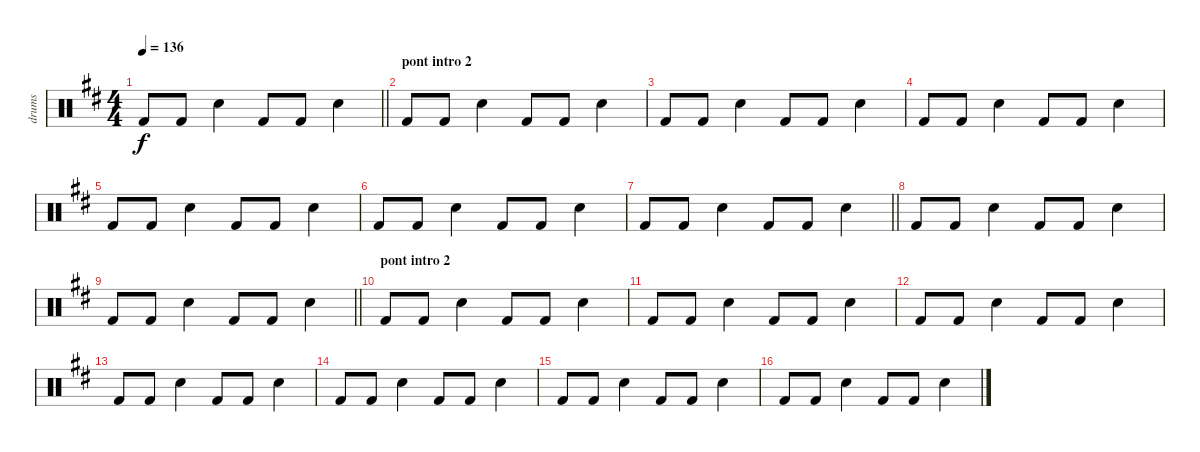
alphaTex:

\track ("drums" "drums") {instrument percussion}
\staff {score}
\articulation defaults
\ts (4 4)
\tempo 136
\clef neutral
\barLineRight lightlight
\ks d "Kick (hit) 2".8{dy f} "Kick (hit) 2".8 "Electric Snare (hit)".4 "Kick (hit) 2".8 "Kick (hit) 2".8 "Electric Snare (hit)".4
|
\section ("" "pont intro 2")
"Kick (hit) 2".8 "Kick (hit) 2".8 "Electric Snare (hit)".4 "Kick (hit) 2".8 "Kick (hit) 2".8 "Electric Snare (hit)".4 |
"Kick (hit) 2".8 "Kick (hit) 2".8 "Electric Snare (hit)".4 "Kick (hit) 2".8 "Kick (hit) 2".8 "Electric Snare (hit)".4 |
"Kick (hit) 2".8 "Kick (hit) 2".8 "Electric Snare (hit)".4 "Kick (hit) 2".8 "Kick (hit) 2".8 "Electric Snare (hit)".4 |
"Kick (hit) 2".8 "Kick (hit) 2".8 "Electric Snare (hit)".4 "Kick (hit) 2".8 "Kick (hit) 2".8 "Electric Snare (hit)".4 |
"Kick (hit) 2".8 "Kick (hit) 2".8 "Electric Snare (hit)".4 "Kick (hit) 2".8 "Kick (hit) 2".8 "Electric Snare (hit)".4 |
\barLineRight lightlight "Kick (hit) 2".8 "Kick (hit) 2".8 "Electric Snare (hit)".4 "Kick (hit) 2".8 "Kick (hit) 2".8 "Electric Snare (hit)".4
|
"Kick (hit) 2".8 "Kick (hit) 2".8 "Electric Snare (hit)".4 "Kick (hit) 2".8 "Kick (hit) 2".8 "Electric Snare (hit)".4 |
\barLineRight lightlight "Kick (hit) 2".8 "Kick (hit) 2".8 "Electric Snare (hit)".4 "Kick (hit) 2".8 "Kick (hit) 2".8 "Electric Snare (hit)".4
|
\section ("" "pont intro 2")
"Kick (hit) 2".8 "Kick (hit) 2".8 "Electric Snare (hit)".4 "Kick (hit) 2".8 "Kick (hit) 2".8 "Electric Snare (hit)".4 |
"Kick (hit) 2".8 "Kick (hit) 2".8 "Electric Snare (hit)".4 "Kick (hit) 2".8 "Kick (hit) 2".8 "Electric Snare (hit)".4 |
"Kick (hit) 2".8 "Kick (hit) 2".8 "Electric Snare (hit)".4 "Kick (hit) 2".8 "Kick (hit) 2".8 "Electric Snare (hit)".4 |
"Kick (hit) 2".8 "Kick (hit) 2".8 "Electric Snare (hit)".4 "Kick (hit) 2".8 "Kick (hit) 2".8 "Electric Snare (hit)".4 |
"Kick (hit) 2".8 "Kick (hit) 2".8 "Electric Snare (hit)".4 "Kick (hit) 2".8 "Kick (hit) 2".8 "Electric Snare (hit)".4 |
"Kick (hit) 2".8 "Kick (hit) 2".8 "Electric Snare (hit)".4 "Kick (hit) 2".8 "Kick (hit) 2".8 "Electric Snare (hit)".4 |
"Kick (hit) 2".8 "Kick (hit) 2".8 "Electric Snare (hit)".4 "Kick (hit) 2".8 "Kick (hit) 2".8 "Electric Snare (hit)".4
